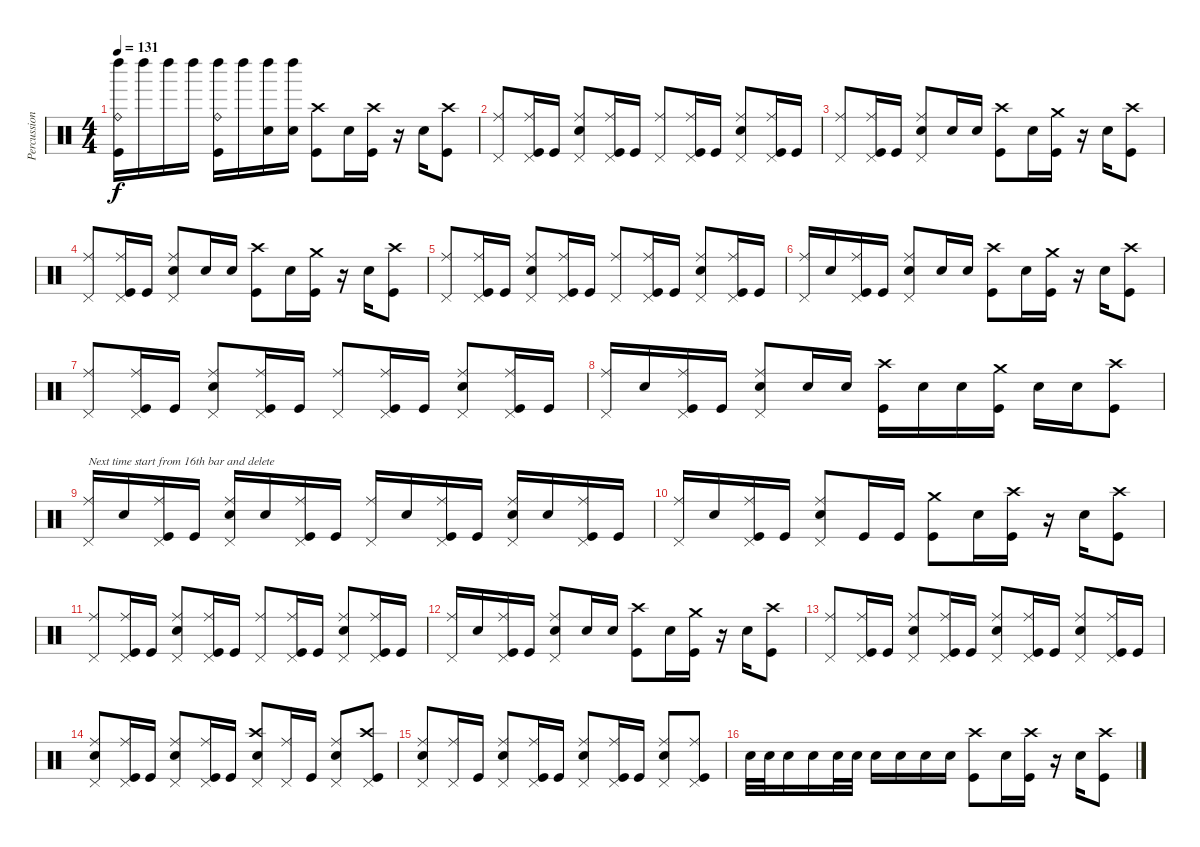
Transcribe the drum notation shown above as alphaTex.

\track ("Percussion" "Percussion") {instrument percussion}
\staff {score}
\articulation defaults
\ts (4 4)
\tempo 131
\clef neutral
\ks c
("Left Maraca (hit)" "Ride (bell)" "Kick (hit)").16{dy f} "Left Maraca (hit)".16 "Left Maraca (hit)".16 "Left Maraca (hit)".16 ("Left Maraca (hit)" "Ride (bell)" "Kick (hit)").16 "Left Maraca (hit)".16 ("Left Maraca (hit)" "Snare (hit) 2").16 ("Left Maraca (hit)" "Snare (hit) 2").16 ("Crash high (hit)" "Kick (hit)").8 "Electric Snare (hit)".16 ("Crash high (hit)" "Kick (hit)").16 r.16 "Electric Snare (hit)".16 ("Kick (hit)" "Crash high (hit)").8 |
("Ride (middle)" "Pedal Hi-Hat (hit)").8 ("Ride (middle)" "Pedal Hi-Hat (hit)" "Kick (hit)").16 "Kick (hit)".16 ("Ride (middle)" "Pedal Hi-Hat (hit)" "Snare (hit) 2").8 ("Ride (middle)" "Pedal Hi-Hat (hit)" "Kick (hit)").16 "Kick (hit)".16 ("Ride (middle)" "Pedal Hi-Hat (hit)").8 ("Ride (middle)" "Pedal Hi-Hat (hit)" "Kick (hit)").16 "Kick (hit)".16 ("Ride (middle)" "Pedal Hi-Hat (hit)" "Snare (hit) 2").8 ("Ride (middle)" "Pedal Hi-Hat (hit)" "Kick (hit)").16 "Kick (hit)".16 |
("Ride (middle)" "Pedal Hi-Hat (hit)").8 ("Pedal Hi-Hat (hit)" "Ride (middle)" "Kick (hit)").16 "Kick (hit)".16 ("Ride (middle)" "Pedal Hi-Hat (hit)" "Snare (hit) 2").8 "Snare (hit) 2".16 "Snare (hit) 2".16 ("Crash high (hit)" "Kick (hit)").8 "Electric Snare (hit)".16 ("Kick (hit)" "Crash medium (hit)").16 r.16 "Electric Snare (hit)".16 ("Kick (hit)" "Crash high (hit)").8 |
("Ride (middle)" "Pedal Hi-Hat (hit)").8 ("Pedal Hi-Hat (hit)" "Ride (middle)" "Kick (hit)").16 "Kick (hit)".16 ("Ride (middle)" "Pedal Hi-Hat (hit)" "Snare (hit) 2").8 "Snare (hit) 2".16 "Snare (hit) 2".16 ("Crash high (hit)" "Kick (hit)").8 "Electric Snare (hit)".16 ("Kick (hit)" "Crash medium (hit)").16 r.16 "Electric Snare (hit)".16 ("Kick (hit)" "Crash high (hit)").8 |
("Ride (middle)" "Pedal Hi-Hat (hit)").8 ("Ride (middle)" "Pedal Hi-Hat (hit)" "Kick (hit)").16 "Kick (hit)".16 ("Ride (middle)" "Pedal Hi-Hat (hit)" "Snare (hit) 2").8 ("Ride (middle)" "Pedal Hi-Hat (hit)" "Kick (hit)").16 "Kick (hit)".16 ("Ride (middle)" "Pedal Hi-Hat (hit)").8 ("Ride (middle)" "Pedal Hi-Hat (hit)" "Kick (hit)").16 "Kick (hit)".16 ("Ride (middle)" "Pedal Hi-Hat (hit)" "Snare (hit) 2").8 ("Ride (middle)" "Pedal Hi-Hat (hit)" "Kick (hit)").16 "Kick (hit)".16 |
("Ride (middle)" "Pedal Hi-Hat (hit)").16 "Snare (hit) 2".16 ("Pedal Hi-Hat (hit)" "Ride (middle)" "Kick (hit)").16 "Kick (hit)".16 ("Ride (middle)" "Pedal Hi-Hat (hit)" "Snare (hit) 2").8 "Snare (hit) 2".16 "Snare (hit) 2".16 ("Crash high (hit)" "Kick (hit)").8 "Electric Snare (hit)".16 ("Kick (hit)" "Crash medium (hit)").16 r.16 "Electric Snare (hit)".16 ("Kick (hit)" "Crash high (hit)").8 |
("Ride (middle)" "Pedal Hi-Hat (hit)").8 ("Ride (middle)" "Pedal Hi-Hat (hit)" "Kick (hit)").16 "Kick (hit)".16 ("Ride (middle)" "Pedal Hi-Hat (hit)" "Snare (hit) 2").8 ("Ride (middle)" "Pedal Hi-Hat (hit)" "Kick (hit)").16 "Kick (hit)".16 ("Ride (middle)" "Pedal Hi-Hat (hit)").8 ("Ride (middle)" "Pedal Hi-Hat (hit)" "Kick (hit)").16 "Kick (hit)".16 ("Ride (middle)" "Pedal Hi-Hat (hit)" "Snare (hit) 2").8 ("Ride (middle)" "Pedal Hi-Hat (hit)" "Kick (hit)").16 "Kick (hit)".16 |
("Ride (middle)" "Pedal Hi-Hat (hit)").16 "Snare (hit) 2".16 ("Pedal Hi-Hat (hit)" "Ride (middle)" "Kick (hit)").16 "Kick (hit)".16 ("Ride (middle)" "Pedal Hi-Hat (hit)" "Snare (hit) 2").8 "Snare (hit) 2".16 "Snare (hit) 2".16 ("Crash high (hit)" "Kick (hit)").16 "Snare (hit) 2".16 "Snare (hit) 2".16 ("Kick (hit)" "Crash medium (hit)").16 "Snare (hit) 2".16 "Snare (hit) 2".16 ("Kick (hit)" "Crash high (hit)").8 |
("Ride (middle)" "Pedal Hi-Hat (hit)").16{txt "Next time start from 16th bar and delete"} "Snare (hit) 2".16 ("Ride (middle)" "Pedal Hi-Hat (hit)" "Kick (hit)").16 "Kick (hit)".16 ("Ride (middle)" "Pedal Hi-Hat (hit)" "Snare (hit) 2").16 "Snare (hit) 2".16 ("Ride (middle)" "Pedal Hi-Hat (hit)" "Kick (hit)").16 "Kick (hit)".16 ("Ride (middle)" "Pedal Hi-Hat (hit)").16 "Snare (hit) 2".16 ("Ride (middle)" "Pedal Hi-Hat (hit)" "Kick (hit)").16 "Kick (hit)".16 ("Ride (middle)" "Pedal Hi-Hat (hit)" "Snare (hit) 2").16 "Snare (hit) 2".16 ("Ride (middle)" "Pedal Hi-Hat (hit)" "Kick (hit)").16 "Kick (hit)".16 |
("Ride (middle)" "Pedal Hi-Hat (hit)").16 "Snare (hit) 2".16 ("Ride (middle)" "Pedal Hi-Hat (hit)" "Kick (hit)").16 "Kick (hit)".16 ("Ride (middle)" "Pedal Hi-Hat (hit)" "Snare (hit) 2").8 "Kick (hit)".16 "Kick (hit)".16 ("Kick (hit)" "Crash medium (hit)").8 "Electric Snare (hit)".16 ("Kick (hit)" "Crash high (hit)").16 r.16 "Electric Snare (hit)".16 ("Kick (hit)" "Crash high (hit)").8 |
("Ride (middle)" "Pedal Hi-Hat (hit)").8 ("Ride (middle)" "Pedal Hi-Hat (hit)" "Kick (hit)").16 "Kick (hit)".16 ("Ride (middle)" "Pedal Hi-Hat (hit)" "Snare (hit) 2").8 ("Ride (middle)" "Pedal Hi-Hat (hit)" "Kick (hit)").16 "Kick (hit)".16 ("Ride (middle)" "Pedal Hi-Hat (hit)").8 ("Ride (middle)" "Pedal Hi-Hat (hit)" "Kick (hit)").16 "Kick (hit)".16 ("Ride (middle)" "Pedal Hi-Hat (hit)" "Snare (hit) 2").8 ("Ride (middle)" "Pedal Hi-Hat (hit)" "Kick (hit)").16 "Kick (hit)".16 |
("Ride (middle)" "Pedal Hi-Hat (hit)").16 "Snare (hit) 2".16 ("Pedal Hi-Hat (hit)" "Ride (middle)" "Kick (hit)").16 "Kick (hit)".16 ("Ride (middle)" "Pedal Hi-Hat (hit)" "Snare (hit) 2").8 "Snare (hit) 2".16 "Snare (hit) 2".16 ("Crash high (hit)" "Kick (hit)").8 "Electric Snare (hit)".16 ("Kick (hit)" "Crash medium (hit)").16 r.16 "Electric Snare (hit)".16 ("Kick (hit)" "Crash high (hit)").8 |
("Ride (middle)" "Pedal Hi-Hat (hit)").8 ("Ride (middle)" "Pedal Hi-Hat (hit)" "Kick (hit)").16 "Kick (hit)".16 ("Ride (middle)" "Pedal Hi-Hat (hit)" "Snare (hit) 2").8 ("Ride (middle)" "Pedal Hi-Hat (hit)" "Kick (hit)").16 "Kick (hit)".16 ("Ride (middle)" "Pedal Hi-Hat (hit)" "Snare (hit) 2").8 ("Ride (middle)" "Pedal Hi-Hat (hit)" "Kick (hit)").16 "Kick (hit)".16 ("Ride (middle)" "Pedal Hi-Hat (hit)" "Snare (hit) 2").8 ("Ride (middle)" "Pedal Hi-Hat (hit)" "Kick (hit)").16 "Kick (hit)".16 |
("Ride (middle)" "Pedal Hi-Hat (hit)" "Snare (hit) 2").8 ("Ride (middle)" "Pedal Hi-Hat (hit)" "Kick (hit)").16 "Kick (hit)".16 ("Ride (middle)" "Pedal Hi-Hat (hit)" "Snare (hit) 2").8 ("Ride (middle)" "Pedal Hi-Hat (hit)" "Kick (hit)").16 "Kick (hit)".16 ("Crash high (hit)" "Pedal Hi-Hat (hit)" "Snare (hit) 2").8 ("Ride (middle)" "Pedal Hi-Hat (hit)").16 "Kick (hit)".16 ("Ride (middle)" "Pedal Hi-Hat (hit)" "Snare (hit) 2").8 ("Crash high (hit)" "Pedal Hi-Hat (hit)" "Kick (hit)").8 |
("Ride (middle)" "Pedal Hi-Hat (hit)" "Snare (hit) 2").8 ("Ride (middle)" "Pedal Hi-Hat (hit)").16 "Kick (hit)".16 ("Ride (middle)" "Pedal Hi-Hat (hit)" "Snare (hit) 2").8 ("Ride (middle)" "Pedal Hi-Hat (hit)" "Kick (hit)").16 "Kick (hit)".16 ("Ride (middle)" "Pedal Hi-Hat (hit)" "Snare (hit) 2").8 ("Ride (middle)" "Pedal Hi-Hat (hit)" "Kick (hit)").16 "Kick (hit)".16 ("Ride (middle)" "Pedal Hi-Hat (hit)" "Snare (hit) 2").8 ("Ride (middle)" "Pedal Hi-Hat (hit)" "Kick (hit)").8 |
"Snare (hit) 2".32 "Snare (hit) 2".32 "Snare (hit) 2".16 "Snare (hit) 2".16 "Snare (hit) 2".32 "Snare (hit) 2".32 "Snare (hit) 2".16 "Snare (hit) 2".16 "Snare (hit) 2".16 "Snare (hit) 2".16 ("Kick (hit)" "Crash high (hit)").8 "Electric Snare (hit)".16 ("Kick (hit)" "Crash high (hit)").16 r.16 "Electric Snare (hit)".16 ("Kick (hit)" "Crash high (hit)").8
